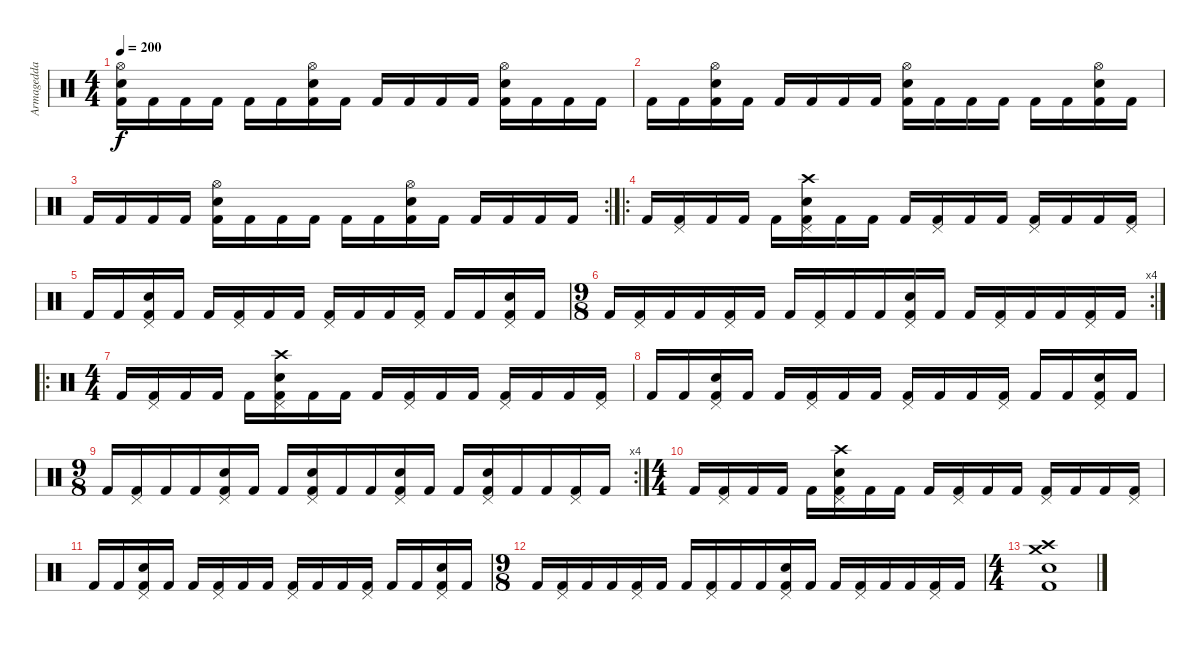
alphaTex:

\track ("Armagedda" "Armagedda") {instrument percussion}
\staff {score}
\articulation defaults
\ts (4 4)
\tempo 200
\clef neutral
\ks c
("Hi-Hat (open)" "Electric Snare (hit)" "Kick (hit) 2").16{dy f} "Kick (hit) 2".16 "Kick (hit) 2".16 "Kick (hit) 2".16 "Kick (hit) 2".16 "Kick (hit) 2".16 ("Hi-Hat (open)" "Electric Snare (hit)" "Kick (hit) 2").16 "Kick (hit) 2".16 "Kick (hit) 2".16 "Kick (hit) 2".16 "Kick (hit) 2".16 "Kick (hit) 2".16 ("Hi-Hat (open)" "Electric Snare (hit)" "Kick (hit) 2").16 "Kick (hit) 2".16 "Kick (hit) 2".16 "Kick (hit) 2".16 |
"Kick (hit) 2".16 "Kick (hit) 2".16 ("Hi-Hat (open)" "Electric Snare (hit)" "Kick (hit) 2").16 "Kick (hit) 2".16 "Kick (hit) 2".16 "Kick (hit) 2".16 "Kick (hit) 2".16 "Kick (hit) 2".16 ("Hi-Hat (open)" "Electric Snare (hit)" "Kick (hit) 2").16 "Kick (hit) 2".16 "Kick (hit) 2".16 "Kick (hit) 2".16 "Kick (hit) 2".16 "Kick (hit) 2".16 ("Hi-Hat (open)" "Electric Snare (hit)" "Kick (hit) 2").16 "Kick (hit) 2".16 |
\rc 2 "Kick (hit) 2".16 "Kick (hit) 2".16 "Kick (hit) 2".16 "Kick (hit) 2".16
("Hi-Hat (open)" "Electric Snare (hit)" "Kick (hit) 2").16 "Kick (hit) 2".16 "Kick (hit) 2".16 "Kick (hit) 2".16 "Kick (hit) 2".16 "Kick (hit) 2".16 ("Hi-Hat (open)" "Electric Snare (hit)" "Kick (hit) 2").16 "Kick (hit) 2".16 "Kick (hit) 2".16 "Kick (hit) 2".16 "Kick (hit) 2".16 "Kick (hit) 2".16 |
\ro "Kick (hit) 2".16
("Pedal Hi-Hat (hit)" "Kick (hit) 2").16 "Kick (hit) 2".16 "Kick (hit) 2".16 "Kick (hit) 2".16 ("Crash high (hit)" "Pedal Hi-Hat (hit)" "Electric Snare (hit)" "Kick (hit) 2").16 "Kick (hit) 2".16 "Kick (hit) 2".16 "Kick (hit) 2".16 ("Pedal Hi-Hat (hit)" "Kick (hit) 2").16 "Kick (hit) 2".16 "Kick (hit) 2".16 ("Pedal Hi-Hat (hit)" "Kick (hit) 2").16 "Kick (hit) 2".16 "Kick (hit) 2".16 ("Pedal Hi-Hat (hit)" "Kick (hit) 2").16 |
"Kick (hit) 2".16 "Kick (hit) 2".16 ("Pedal Hi-Hat (hit)" "Electric Snare (hit)" "Kick (hit) 2").16 "Kick (hit) 2".16 "Kick (hit) 2".16 ("Pedal Hi-Hat (hit)" "Kick (hit) 2").16 "Kick (hit) 2".16 "Kick (hit) 2".16 ("Pedal Hi-Hat (hit)" "Kick (hit) 2").16 "Kick (hit) 2".16 "Kick (hit) 2".16 ("Pedal Hi-Hat (hit)" "Kick (hit) 2").16 "Kick (hit) 2".16 "Kick (hit) 2".16 ("Pedal Hi-Hat (hit)" "Electric Snare (hit)" "Kick (hit) 2").16 "Kick (hit) 2".16 |
\rc 4
\ts (9 8)
"Kick (hit) 2".16 ("Pedal Hi-Hat (hit)" "Kick (hit) 2").16 "Kick (hit) 2".16 "Kick (hit) 2".16 ("Pedal Hi-Hat (hit)" "Kick (hit) 2").16 "Kick (hit) 2".16 "Kick (hit) 2".16 ("Pedal Hi-Hat (hit)" "Kick (hit) 2").16 "Kick (hit) 2".16 "Kick (hit) 2".16 ("Pedal Hi-Hat (hit)" "Electric Snare (hit)" "Kick (hit) 2").16 "Kick (hit) 2".16 "Kick (hit) 2".16 ("Pedal Hi-Hat (hit)" "Kick (hit) 2").16 "Kick (hit) 2".16 "Kick (hit) 2".16 ("Pedal Hi-Hat (hit)" "Kick (hit) 2").16 "Kick (hit) 2".16 |
\ro
\ts (4 4)
"Kick (hit) 2".16 ("Pedal Hi-Hat (hit)" "Kick (hit) 2").16 "Kick (hit) 2".16 "Kick (hit) 2".16 "Kick (hit) 2".16 ("Crash high (hit)" "Pedal Hi-Hat (hit)" "Electric Snare (hit)" "Kick (hit) 2").16 "Kick (hit) 2".16 "Kick (hit) 2".16 "Kick (hit) 2".16 ("Pedal Hi-Hat (hit)" "Kick (hit) 2").16 "Kick (hit) 2".16 "Kick (hit) 2".16 ("Pedal Hi-Hat (hit)" "Kick (hit) 2").16 "Kick (hit) 2".16 "Kick (hit) 2".16 ("Pedal Hi-Hat (hit)" "Kick (hit) 2").16 |
"Kick (hit) 2".16 "Kick (hit) 2".16 ("Pedal Hi-Hat (hit)" "Electric Snare (hit)" "Kick (hit) 2").16 "Kick (hit) 2".16 "Kick (hit) 2".16 ("Pedal Hi-Hat (hit)" "Kick (hit) 2").16 "Kick (hit) 2".16 "Kick (hit) 2".16 ("Pedal Hi-Hat (hit)" "Kick (hit) 2").16 "Kick (hit) 2".16 "Kick (hit) 2".16 ("Pedal Hi-Hat (hit)" "Kick (hit) 2").16 "Kick (hit) 2".16 "Kick (hit) 2".16 ("Pedal Hi-Hat (hit)" "Electric Snare (hit)" "Kick (hit) 2").16 "Kick (hit) 2".16 |
\rc 4
\ts (9 8)
"Kick (hit) 2".16 ("Pedal Hi-Hat (hit)" "Kick (hit) 2").16 "Kick (hit) 2".16 "Kick (hit) 2".16 ("Pedal Hi-Hat (hit)" "Electric Snare (hit)" "Kick (hit) 2").16 "Kick (hit) 2".16 "Kick (hit) 2".16 ("Pedal Hi-Hat (hit)" "Electric Snare (hit)" "Kick (hit) 2").16 "Kick (hit) 2".16 "Kick (hit) 2".16 ("Pedal Hi-Hat (hit)" "Electric Snare (hit)" "Kick (hit) 2").16 "Kick (hit) 2".16 "Kick (hit) 2".16 ("Pedal Hi-Hat (hit)" "Electric Snare (hit)" "Kick (hit) 2").16 "Kick (hit) 2".16 "Kick (hit) 2".16 ("Pedal Hi-Hat (hit)" "Kick (hit) 2").16 "Kick (hit) 2".16 |
\ts (4 4)
"Kick (hit) 2".16 ("Pedal Hi-Hat (hit)" "Kick (hit) 2").16 "Kick (hit) 2".16 "Kick (hit) 2".16 "Kick (hit) 2".16 ("Crash high (hit)" "Pedal Hi-Hat (hit)" "Electric Snare (hit)" "Kick (hit) 2").16 "Kick (hit) 2".16 "Kick (hit) 2".16 "Kick (hit) 2".16 ("Pedal Hi-Hat (hit)" "Kick (hit) 2").16 "Kick (hit) 2".16 "Kick (hit) 2".16 ("Pedal Hi-Hat (hit)" "Kick (hit) 2").16 "Kick (hit) 2".16 "Kick (hit) 2".16 ("Pedal Hi-Hat (hit)" "Kick (hit) 2").16 |
"Kick (hit) 2".16 "Kick (hit) 2".16 ("Pedal Hi-Hat (hit)" "Electric Snare (hit)" "Kick (hit) 2").16 "Kick (hit) 2".16 "Kick (hit) 2".16 ("Pedal Hi-Hat (hit)" "Kick (hit) 2").16 "Kick (hit) 2".16 "Kick (hit) 2".16 ("Pedal Hi-Hat (hit)" "Kick (hit) 2").16 "Kick (hit) 2".16 "Kick (hit) 2".16 ("Pedal Hi-Hat (hit)" "Kick (hit) 2").16 "Kick (hit) 2".16 "Kick (hit) 2".16 ("Pedal Hi-Hat (hit)" "Electric Snare (hit)" "Kick (hit) 2").16 "Kick (hit) 2".16 |
\ts (9 8)
"Kick (hit) 2".16 ("Pedal Hi-Hat (hit)" "Kick (hit) 2").16 "Kick (hit) 2".16 "Kick (hit) 2".16 ("Pedal Hi-Hat (hit)" "Kick (hit) 2").16 "Kick (hit) 2".16 "Kick (hit) 2".16 ("Pedal Hi-Hat (hit)" "Kick (hit) 2").16 "Kick (hit) 2".16 "Kick (hit) 2".16 ("Pedal Hi-Hat (hit)" "Electric Snare (hit)" "Kick (hit) 2").16 "Kick (hit) 2".16 "Kick (hit) 2".16 ("Pedal Hi-Hat (hit)" "Kick (hit) 2").16 "Kick (hit) 2".16 "Kick (hit) 2".16 ("Pedal Hi-Hat (hit)" "Kick (hit) 2").16 "Kick (hit) 2".16 |
\ts (4 4)
("Crash high (hit)" "Crash medium (hit)" "Kick (hit) 2" "Electric Snare (hit)").1
